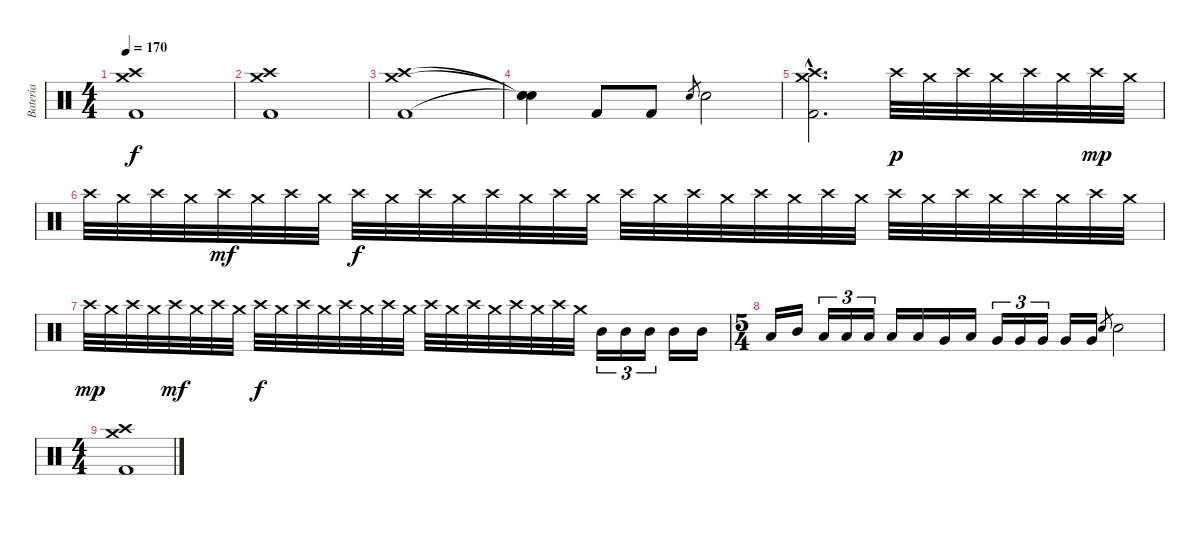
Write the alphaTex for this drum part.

\track ("Bateria" "Bateria") {instrument percussion}
\staff {score}
\articulation defaults
\ts (4 4)
\tempo 170
\clef neutral
\ks c
("Kick (hit) 2" "Crash medium (hit)" "Crash high (hit)").1{dy f} |
("Kick (hit) 2" "Crash medium (hit)" "Crash high (hit)").1 |
("Kick (hit) 2" "Crash medium (hit)" "Crash high (hit)").1 |
("Snare (hit)"{t} "Snare (hit)"{t} "Snare (hit)"{t}).4 "Kick (hit) 2".8 "Kick (hit) 2".8 "Snare (hit) 2".8{gr} "Snare (hit) 2".2 |
("Kick (hit) 2"{hac} "Crash medium (hit)"{hac} "Crash high (hit)"{hac}).2{d} "Crash high (hit)".32{dy p} "Crash medium (hit)".32 "Crash high (hit)".32 "Crash medium (hit)".32 "Crash high (hit)".32 "Crash medium (hit)".32 "Crash high (hit)".32{dy mp} "Crash medium (hit)".32 |
"Crash high (hit)".32 "Crash medium (hit)".32 "Crash high (hit)".32 "Crash medium (hit)".32 "Crash high (hit)".32{dy mf} "Crash medium (hit)".32 "Crash high (hit)".32 "Crash medium (hit)".32 "Crash high (hit)".32{dy f} "Crash medium (hit)".32 "Crash high (hit)".32 "Crash medium (hit)".32 "Crash high (hit)".32 "Crash medium (hit)".32 "Crash high (hit)".32 "Crash medium (hit)".32 "Crash high (hit)".32 "Crash medium (hit)".32 "Crash high (hit)".32 "Crash medium (hit)".32 "Crash high (hit)".32 "Crash medium (hit)".32 "Crash high (hit)".32 "Crash medium (hit)".32 "Crash high (hit)".32 "Crash medium (hit)".32 "Crash high (hit)".32 "Crash medium (hit)".32 "Crash high (hit)".32 "Crash medium (hit)".32 "Crash high (hit)".32 "Crash medium (hit)".32 |
"Crash high (hit)".32{dy mp} "Crash medium (hit)".32 "Crash high (hit)".32 "Crash medium (hit)".32 "Crash high (hit)".32{dy mf} "Crash medium (hit)".32 "Crash high (hit)".32 "Crash medium (hit)".32 "Crash high (hit)".32{dy f} "Crash medium (hit)".32 "Crash high (hit)".32 "Crash medium (hit)".32 "Crash high (hit)".32 "Crash medium (hit)".32 "Crash high (hit)".32 "Crash medium (hit)".32 "Crash high (hit)".32 "Crash medium (hit)".32 "Crash high (hit)".32 "Crash medium (hit)".32 "Crash high (hit)".32 "Crash medium (hit)".32 "Crash high (hit)".32 "Crash medium (hit)".32 "Mid Tom (hit)".16{tu (3 2)} "Mid Tom (hit)".16{tu (3 2)} "Mid Tom (hit)".16{tu (3 2)} "Mid Tom (hit)".16 "Mid Tom (hit)".16 |
\ts (5 4)
"Low Tom (hit)".16 "Mid Tom (hit)".16 "Low Tom (hit)".16{tu (3 2)} "Low Tom (hit)".16{tu (3 2)} "Low Tom (hit)".16{tu (3 2)} "Low Tom (hit)".16 "Low Tom (hit)".16 "Very Low Tom (hit)".16 "Low Tom (hit)".16 "Very Low Tom (hit)".16{tu (3 2)} "Very Low Tom (hit)".16{tu (3 2)} "Very Low Tom (hit)".16{tu (3 2)} "Very Low Tom (hit)".16 "Very Low Tom (hit)".16 "Snare (hit) 2".8{gr} "Snare (hit) 2".2 |
\ts (4 4)
("Kick (hit) 2" "Crash medium (hit)" "Crash high (hit)").1
